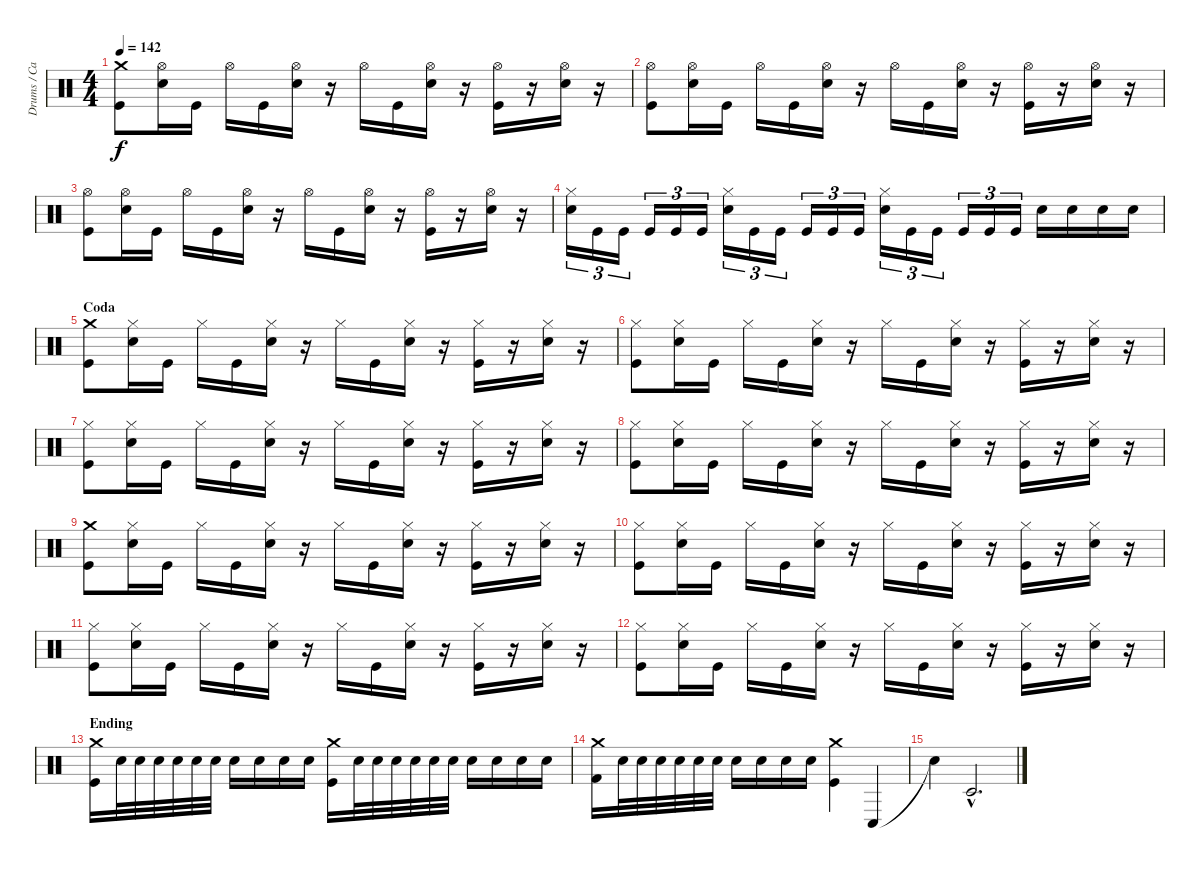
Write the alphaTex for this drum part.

\track ("Drums / Car " "Drums / Ca") {instrument percussion}
\staff {score}
\articulation defaults
\ts (4 4)
\tempo 142
\clef neutral
\ks c
("Crash medium (hit)" "Kick (hit)").8{dy f} ("Hi-Hat (open)" "Electric Snare (hit)").16 "Kick (hit)".16 "Hi-Hat (open)".16 "Kick (hit)".16 ("Hi-Hat (open)" "Electric Snare (hit)").16 r.16 "Hi-Hat (open)".16 "Kick (hit)".16 ("Hi-Hat (open)" "Electric Snare (hit)").16 r.16 ("Hi-Hat (open)" "Kick (hit)").16 r.16 ("Hi-Hat (open)" "Electric Snare (hit)").16 r.16 |
("Hi-Hat (open)" "Kick (hit)").8 ("Hi-Hat (open)" "Electric Snare (hit)").16 "Kick (hit)".16 "Hi-Hat (open)".16 "Kick (hit)".16 ("Hi-Hat (open)" "Electric Snare (hit)").16 r.16 "Hi-Hat (open)".16 "Kick (hit)".16 ("Hi-Hat (open)" "Electric Snare (hit)").16 r.16 ("Hi-Hat (open)" "Kick (hit)").16 r.16 ("Hi-Hat (open)" "Electric Snare (hit)").16 r.16 |
("Hi-Hat (open)" "Kick (hit)").8 ("Hi-Hat (open)" "Electric Snare (hit)").16 "Kick (hit)".16 "Hi-Hat (open)".16 "Kick (hit)".16 ("Hi-Hat (open)" "Electric Snare (hit)").16 r.16 "Hi-Hat (open)".16 "Kick (hit)".16 ("Hi-Hat (open)" "Electric Snare (hit)").16 r.16 ("Hi-Hat (open)" "Kick (hit)").16 r.16 ("Hi-Hat (open)" "Electric Snare (hit)").16 r.16 |
("Hi-Hat (closed)" "Electric Snare (hit)").16{tu (3 2)} "Kick (hit)".16{tu (3 2)} "Kick (hit)".16{tu (3 2)} "Kick (hit)".16{tu (3 2)} "Kick (hit)".16{tu (3 2)} "Kick (hit)".16{tu (3 2)} ("Hi-Hat (closed)" "Electric Snare (hit)").16{tu (3 2)} "Kick (hit)".16{tu (3 2)} "Kick (hit)".16{tu (3 2)} "Kick (hit)".16{tu (3 2)} "Kick (hit)".16{tu (3 2)} "Kick (hit)".16{tu (3 2)} ("Hi-Hat (closed)" "Electric Snare (hit)").16{tu (3 2)} "Kick (hit)".16{tu (3 2)} "Kick (hit)".16{tu (3 2)} "Kick (hit)".16{tu (3 2)} "Kick (hit)".16{tu (3 2)} "Kick (hit)".16{tu (3 2)} "Electric Snare (hit)".16 "Electric Snare (hit)".16 "Electric Snare (hit)".16 "Electric Snare (hit)".16 |
\section ("" "Coda")
("Crash medium (hit)" "Kick (hit)").8 ("Hi-Hat (closed)" "Electric Snare (hit)").16 "Kick (hit)".16 "Hi-Hat (closed)".16 "Kick (hit)".16 ("Hi-Hat (closed)" "Electric Snare (hit)").16 r.16 "Hi-Hat (closed)".16 "Kick (hit)".16 ("Hi-Hat (closed)" "Electric Snare (hit)").16 r.16 ("Hi-Hat (closed)" "Kick (hit)").16 r.16 ("Hi-Hat (closed)" "Electric Snare (hit)").16 r.16 |
("Hi-Hat (closed)" "Kick (hit)").8 ("Hi-Hat (closed)" "Electric Snare (hit)").16 "Kick (hit)".16 "Hi-Hat (closed)".16 "Kick (hit)".16 ("Hi-Hat (closed)" "Electric Snare (hit)").16 r.16 "Hi-Hat (closed)".16 "Kick (hit)".16 ("Hi-Hat (closed)" "Electric Snare (hit)").16 r.16 ("Hi-Hat (closed)" "Kick (hit)").16 r.16 ("Hi-Hat (closed)" "Electric Snare (hit)").16 r.16 |
("Hi-Hat (closed)" "Kick (hit)").8 ("Hi-Hat (closed)" "Electric Snare (hit)").16 "Kick (hit)".16 "Hi-Hat (closed)".16 "Kick (hit)".16 ("Hi-Hat (closed)" "Electric Snare (hit)").16 r.16 "Hi-Hat (closed)".16 "Kick (hit)".16 ("Hi-Hat (closed)" "Electric Snare (hit)").16 r.16 ("Hi-Hat (closed)" "Kick (hit)").16 r.16 ("Hi-Hat (closed)" "Electric Snare (hit)").16 r.16 |
("Hi-Hat (closed)" "Kick (hit)").8 ("Hi-Hat (closed)" "Electric Snare (hit)").16 "Kick (hit)".16 "Hi-Hat (closed)".16 "Kick (hit)".16 ("Hi-Hat (closed)" "Electric Snare (hit)").16 r.16 "Hi-Hat (closed)".16 "Kick (hit)".16 ("Hi-Hat (closed)" "Electric Snare (hit)").16 r.16 ("Hi-Hat (closed)" "Kick (hit)").16 r.16 ("Hi-Hat (closed)" "Electric Snare (hit)").16 r.16 |
("Crash medium (hit)" "Kick (hit)").8 ("Hi-Hat (closed)" "Electric Snare (hit)").16 "Kick (hit)".16 "Hi-Hat (closed)".16 "Kick (hit)".16 ("Hi-Hat (closed)" "Electric Snare (hit)").16 r.16 "Hi-Hat (closed)".16 "Kick (hit)".16 ("Hi-Hat (closed)" "Electric Snare (hit)").16 r.16 ("Hi-Hat (closed)" "Kick (hit)").16 r.16 ("Hi-Hat (closed)" "Electric Snare (hit)").16 r.16 |
("Hi-Hat (closed)" "Kick (hit)").8 ("Hi-Hat (closed)" "Electric Snare (hit)").16 "Kick (hit)".16 "Hi-Hat (closed)".16 "Kick (hit)".16 ("Hi-Hat (closed)" "Electric Snare (hit)").16 r.16 "Hi-Hat (closed)".16 "Kick (hit)".16 ("Hi-Hat (closed)" "Electric Snare (hit)").16 r.16 ("Hi-Hat (closed)" "Kick (hit)").16 r.16 ("Hi-Hat (closed)" "Electric Snare (hit)").16 r.16 |
("Hi-Hat (closed)" "Kick (hit)").8 ("Hi-Hat (closed)" "Electric Snare (hit)").16 "Kick (hit)".16 "Hi-Hat (closed)".16 "Kick (hit)".16 ("Hi-Hat (closed)" "Electric Snare (hit)").16 r.16 "Hi-Hat (closed)".16 "Kick (hit)".16 ("Hi-Hat (closed)" "Electric Snare (hit)").16 r.16 ("Hi-Hat (closed)" "Kick (hit)").16 r.16 ("Hi-Hat (closed)" "Electric Snare (hit)").16 r.16 |
("Hi-Hat (closed)" "Kick (hit)").8 ("Hi-Hat (closed)" "Electric Snare (hit)").16 "Kick (hit)".16 "Hi-Hat (closed)".16 "Kick (hit)".16 ("Hi-Hat (closed)" "Electric Snare (hit)").16 r.16 "Hi-Hat (closed)".16 "Kick (hit)".16 ("Hi-Hat (closed)" "Electric Snare (hit)").16 r.16 ("Hi-Hat (closed)" "Kick (hit)").16 r.16 ("Hi-Hat (closed)" "Electric Snare (hit)").16 r.16 |
\section ("" "Ending")
("Crash medium (hit)" "Kick (hit)").16 "Electric Snare (hit)".32 "Electric Snare (hit)".32 "Electric Snare (hit)".32 "Electric Snare (hit)".32 "Electric Snare (hit)".32 "Electric Snare (hit)".32 "Electric Snare (hit)".16 "Electric Snare (hit)".16 "Electric Snare (hit)".16 "Electric Snare (hit)".16 ("Crash medium (hit)" "Kick (hit)").16 "Electric Snare (hit)".32 "Electric Snare (hit)".32 "Electric Snare (hit)".32 "Electric Snare (hit)".32 "Electric Snare (hit)".32 "Electric Snare (hit)".32 "Electric Snare (hit)".16 "Electric Snare (hit)".16 "Electric Snare (hit)".16 "Electric Snare (hit)".16 |
("Crash medium (hit)" "Kick (hit) 2").16 "Electric Snare (hit)".32 "Electric Snare (hit)".32 "Electric Snare (hit)".32 "Electric Snare (hit)".32 "Electric Snare (hit)".32 "Electric Snare (hit)".32 "Electric Snare (hit)".16 "Electric Snare (hit)".16 "Electric Snare (hit)".16 "Electric Snare (hit)".16 ("Crash medium (hit)" "Kick (hit)").4 "Conga low (hit)".4 |
"Snare (hit)"{t}.4 "Timbale low (hit)"{hac}.2{d}
